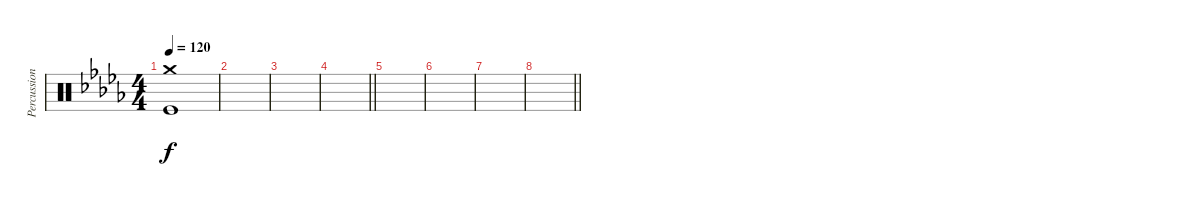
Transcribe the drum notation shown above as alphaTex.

\track ("Percussion" "Percussion") {instrument percussion}
\staff {score}
\articulation defaults
\ts (4 4)
\tempo 120
\clef neutral
\ks db
("Crash medium (hit)" "Kick (hit)").1{dy f} |
|
|
\barLineRight lightlight
|
|
|
|
\barLineRight lightlight
